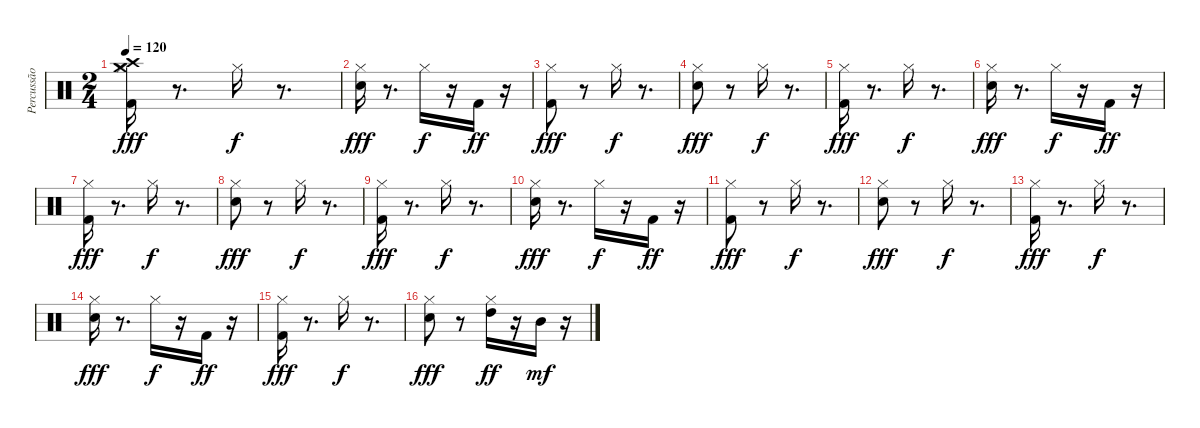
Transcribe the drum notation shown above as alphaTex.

\track ("Percussão" "Percussão") {instrument percussion}
\staff {score}
\articulation defaults
\ts (2 4)
\tempo 120
\clef neutral
\ks c
("Crash medium (hit)" "Kick (hit) 2" "Hi-Hat (closed)" "Crash high (hit)").16{dy fff} r.8{d} "Hi-Hat (closed)".16{dy f} r.8{d} |
("Snare (hit) 2" "Hi-Hat (closed)").16{dy fff} r.8{d} "Hi-Hat (closed)".16{dy f} r.16 "Kick (hit) 2".16{dy ff} r.16 |
("Kick (hit) 2" "Hi-Hat (closed)").8{dy fff} r.8 "Hi-Hat (closed)".16{dy f} r.8{d} |
("Snare (hit) 2" "Hi-Hat (closed)").8{dy fff} r.8 "Hi-Hat (closed)".16{dy f} r.8{d} |
("Kick (hit) 2" "Hi-Hat (closed)").16{dy fff} r.8{d} "Hi-Hat (closed)".16{dy f} r.8{d} |
("Snare (hit) 2" "Hi-Hat (closed)").16{dy fff} r.8{d} "Hi-Hat (closed)".16{dy f} r.16 "Kick (hit) 2".16{dy ff} r.16 |
("Kick (hit) 2" "Hi-Hat (closed)").16{dy fff} r.8{d} "Hi-Hat (closed)".16{dy f} r.8{d} |
("Snare (hit) 2" "Hi-Hat (closed)").8{dy fff} r.8 "Hi-Hat (closed)".16{dy f} r.8{d} |
("Kick (hit) 2" "Hi-Hat (closed)").16{dy fff} r.8{d} "Hi-Hat (closed)".16{dy f} r.8{d} |
("Snare (hit) 2" "Hi-Hat (closed)").16{dy fff} r.8{d} "Hi-Hat (closed)".16{dy f} r.16 "Kick (hit) 2".16{dy ff} r.16 |
("Kick (hit) 2" "Hi-Hat (closed)").8{dy fff} r.8 "Hi-Hat (closed)".16{dy f} r.8{d} |
("Snare (hit) 2" "Hi-Hat (closed)").8{dy fff} r.8 "Hi-Hat (closed)".16{dy f} r.8{d} |
("Kick (hit) 2" "Hi-Hat (closed)").16{dy fff} r.8{d} "Hi-Hat (closed)".16{dy f} r.8{d} |
("Snare (hit) 2" "Hi-Hat (closed)").16{dy fff} r.8{d} "Hi-Hat (closed)".16{dy f} r.16 "Kick (hit) 2".16{dy ff} r.16 |
("Kick (hit) 2" "Hi-Hat (closed)").16{dy fff} r.8{d} "Hi-Hat (closed)".16{dy f} r.8{d} |
("Snare (hit) 2" "Hi-Hat (closed)").8{dy fff} r.8 ("Hi-Hat (closed)" "High Tom (hit)").16{dy ff} r.16 "Mid Tom (hit)".16{dy mf} r.16
